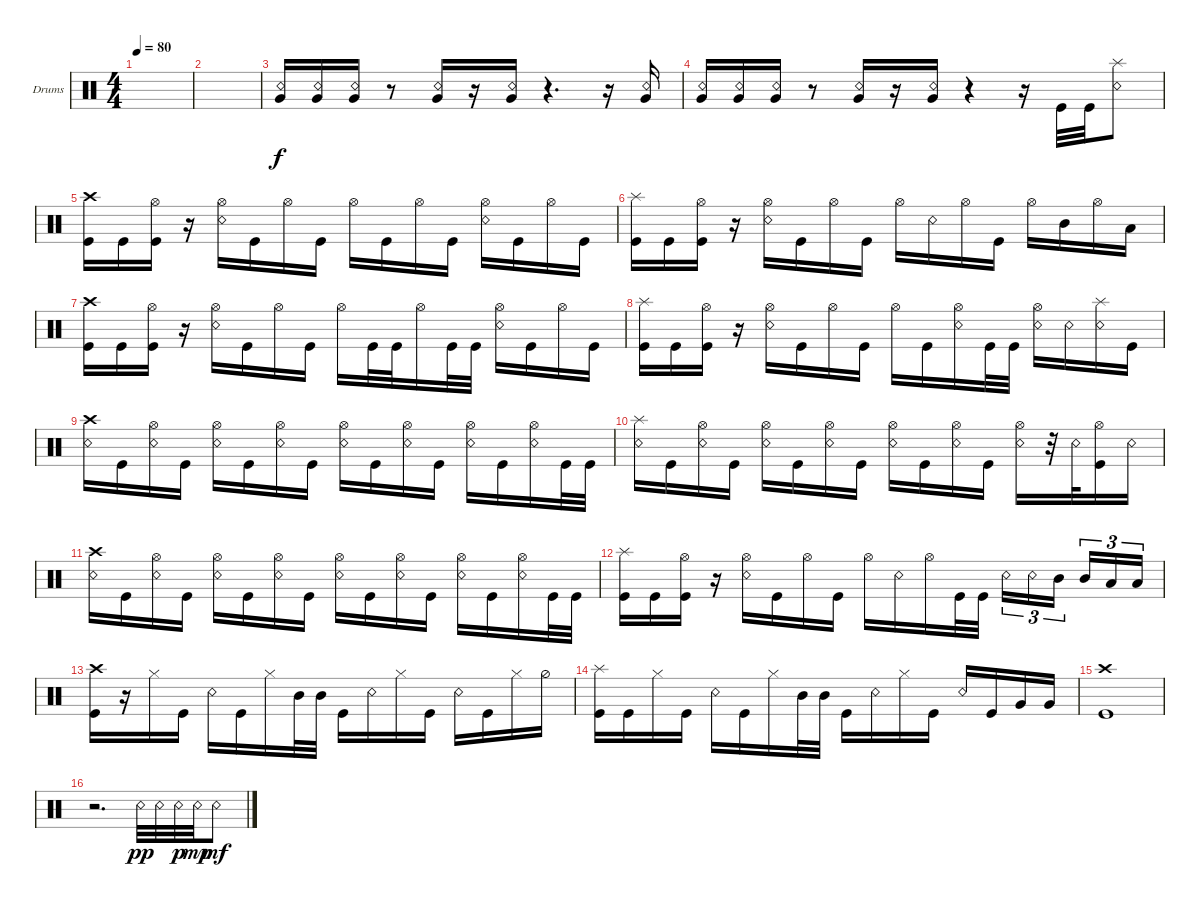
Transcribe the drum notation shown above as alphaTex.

\defaultSystemsLayout 4
\bracketExtendMode groupsimilarinstruments
\firstSystemTrackNameOrientation horizontal
\otherSystemsTrackNameOrientation horizontal
\track ("Drumkit" "Drums") {instrument percussion}
\staff {score}
\articulation defaults
\ts (4 4)
\tempo 80
\clef neutral
\ks c
|
|
("Very Low Tom (hit)" "Snare (rim shot)").16 ("Very Low Tom (hit)" "Snare (rim shot)").16 ("Very Low Tom (hit)" "Snare (rim shot)").16 r.8 ("Snare (rim shot)" "Very Low Tom (hit)").16 r.16 ("Snare (rim shot)" "Very Low Tom (hit)").16 r.4{d} r.16 ("Very Low Tom (hit)" "Snare (rim shot)").16 |
("Very Low Tom (hit)" "Snare (rim shot)").16 ("Very Low Tom (hit)" "Snare (rim shot)").16 ("Very Low Tom (hit)" "Snare (rim shot)").16 r.8 ("Snare (rim shot)" "Very Low Tom (hit)").16 r.16 ("Snare (rim shot)" "Very Low Tom (hit)").16 r.4 r.16 "Kick (hit)".32 "Kick (hit)".32 ("Snare (rim shot)" "Splash (hit)").8 |
("Kick (hit)" "Crash high (hit)").16 "Kick (hit)".16 ("Kick (hit)" "Hi-Hat (open)").16 r.16 ("Snare (rim shot)" "Hi-Hat (open)").16 "Kick (hit)".16 "Hi-Hat (open)".16 "Kick (hit)".16 "Hi-Hat (open)".16 "Kick (hit)".16 "Hi-Hat (open)".16 "Kick (hit)".16 ("Snare (rim shot)" "Hi-Hat (open)").16 "Kick (hit)".16 "Hi-Hat (open)".16 "Kick (hit)".16 |
("Kick (hit)" "Splash (hit)").16 "Kick (hit)".16 ("Kick (hit)" "Hi-Hat (open)").16 r.16 ("Snare (rim shot)" "Hi-Hat (open)").16 "Kick (hit)".16 "Hi-Hat (open)".16 "Kick (hit)".16 "Hi-Hat (open)".16 "Snare (rim shot)".16 "Hi-Hat (open)".16 "Kick (hit)".16 "Hi-Hat (open)".16 "Mid Tom (hit)".16 "Hi-Hat (open)".16 "Low Tom (hit)".16 |
("Kick (hit)" "Crash high (hit)").16 "Kick (hit)".16 ("Kick (hit)" "Hi-Hat (open)").16 r.16 ("Snare (rim shot)" "Hi-Hat (open)").16 "Kick (hit)".16 "Hi-Hat (open)".16 "Kick (hit)".16 "Hi-Hat (open)".16 "Kick (hit)".32 "Kick (hit)".32 "Hi-Hat (open)".16 "Kick (hit)".32 "Kick (hit)".32 ("Snare (rim shot)" "Hi-Hat (open)").16 "Kick (hit)".16 "Hi-Hat (open)".16 "Kick (hit)".16 |
("Kick (hit)" "Splash (hit)").16 "Kick (hit)".16 ("Kick (hit)" "Hi-Hat (open)").16 r.16 ("Snare (rim shot)" "Hi-Hat (open)").16 "Kick (hit)".16 "Hi-Hat (open)".16 "Kick (hit)".16 "Hi-Hat (open)".16 "Kick (hit)".16 ("Hi-Hat (open)" "Snare (rim shot)").16 "Kick (hit)".32 "Kick (hit)".32 ("Snare (rim shot)" "Hi-Hat (open)").16 "Snare (rim shot)".16 ("Snare (rim shot)" "Splash (hit)").16 "Kick (hit)".16 |
("Snare (rim shot)" "Crash high (hit)").16 "Kick (hit)".16 ("Snare (rim shot)" "Hi-Hat (open)").16 "Kick (hit)".16 ("Snare (rim shot)" "Hi-Hat (open)").16 "Kick (hit)".16 ("Snare (rim shot)" "Hi-Hat (open)").16 "Kick (hit)".16 ("Snare (rim shot)" "Hi-Hat (open)").16 "Kick (hit)".16 ("Snare (rim shot)" "Hi-Hat (open)").16 "Kick (hit)".16 ("Snare (rim shot)" "Hi-Hat (open)").16 "Kick (hit)".16 ("Snare (rim shot)" "Hi-Hat (open)").16 "Kick (hit)".32 "Kick (hit)".32 |
("Snare (rim shot)" "Splash (hit)").16 "Kick (hit)".16 ("Snare (rim shot)" "Hi-Hat (open)").16 "Kick (hit)".16 ("Snare (rim shot)" "Hi-Hat (open)").16 "Kick (hit)".16 ("Snare (rim shot)" "Hi-Hat (open)").16 "Kick (hit)".16 ("Snare (rim shot)" "Hi-Hat (open)").16 "Kick (hit)".16 ("Snare (rim shot)" "Hi-Hat (open)").16 "Kick (hit)".16 ("Snare (rim shot)" "Hi-Hat (open)").16 r.32 "Snare (rim shot)".32 ("Kick (hit)" "Hi-Hat (open)").16 "Snare (rim shot)".16 |
("Snare (rim shot)" "Crash high (hit)").16 "Kick (hit)".16 ("Snare (rim shot)" "Hi-Hat (open)").16 "Kick (hit)".16 ("Snare (rim shot)" "Hi-Hat (open)").16 "Kick (hit)".16 ("Snare (rim shot)" "Hi-Hat (open)").16 "Kick (hit)".16 ("Snare (rim shot)" "Hi-Hat (open)").16 "Kick (hit)".16 ("Snare (rim shot)" "Hi-Hat (open)").16 "Kick (hit)".16 ("Snare (rim shot)" "Hi-Hat (open)").16 "Kick (hit)".16 ("Snare (rim shot)" "Hi-Hat (open)").16 "Kick (hit)".32 "Kick (hit)".32 |
("Kick (hit)" "Splash (hit)").16 "Kick (hit)".16 ("Kick (hit)" "Hi-Hat (open)").16 r.16 ("Snare (rim shot)" "Hi-Hat (open)").16 "Kick (hit)".16 "Hi-Hat (open)".16 "Kick (hit)".16 "Hi-Hat (open)".16 "Snare (rim shot)".16 "Hi-Hat (open)".16 "Kick (hit)".32 "Kick (hit)".32 "Snare (rim shot)".16{tu (3 2)} "Snare (rim shot)".16{tu (3 2)} "Mid Tom (hit)".16{tu (3 2)} "Mid Tom (hit)".16{tu (3 2)} "Low Tom (hit)".16{tu (3 2)} "Low Tom (hit)".16{tu (3 2)} |
("Kick (hit)" "Crash high (hit)").16 r.16 "Hi-Hat (closed)".16 "Kick (hit)".16 "Snare (rim shot)".16 "Kick (hit)".16 "Hi-Hat (closed)".16 "Mid Tom (hit)".32 "Mid Tom (hit)".32 "Kick (hit)".16 "Snare (rim shot)".16 "Hi-Hat (closed)".16 "Kick (hit)".16 "Snare (rim shot)".16 "Kick (hit)".16 "Hi-Hat (closed)".16 "Hi-Hat (half)".16 |
("Kick (hit)" "Splash (hit)").16 "Kick (hit)".16 "Hi-Hat (closed)".16 "Kick (hit)".16 "Snare (rim shot)".16 "Kick (hit)".16 "Hi-Hat (closed)".16 "Mid Tom (hit)".32 "Mid Tom (hit)".32 "Kick (hit)".16 "Snare (rim shot)".16 "Hi-Hat (closed)".16 "Kick (hit)".16 "Snare (rim shot)".16 "Kick (hit)".16 "Very Low Tom (hit)".16 "Very Low Tom (hit)".16 |
("Kick (hit)" "Crash high (hit)").1 |
r.2{d} "Snare (rim shot)".32{dy pp} "Snare (rim shot)".32 "Snare (rim shot)".32{dy p} "Snare (rim shot)".32{dy mp} "Snare (rim shot)".8{dy mf}
